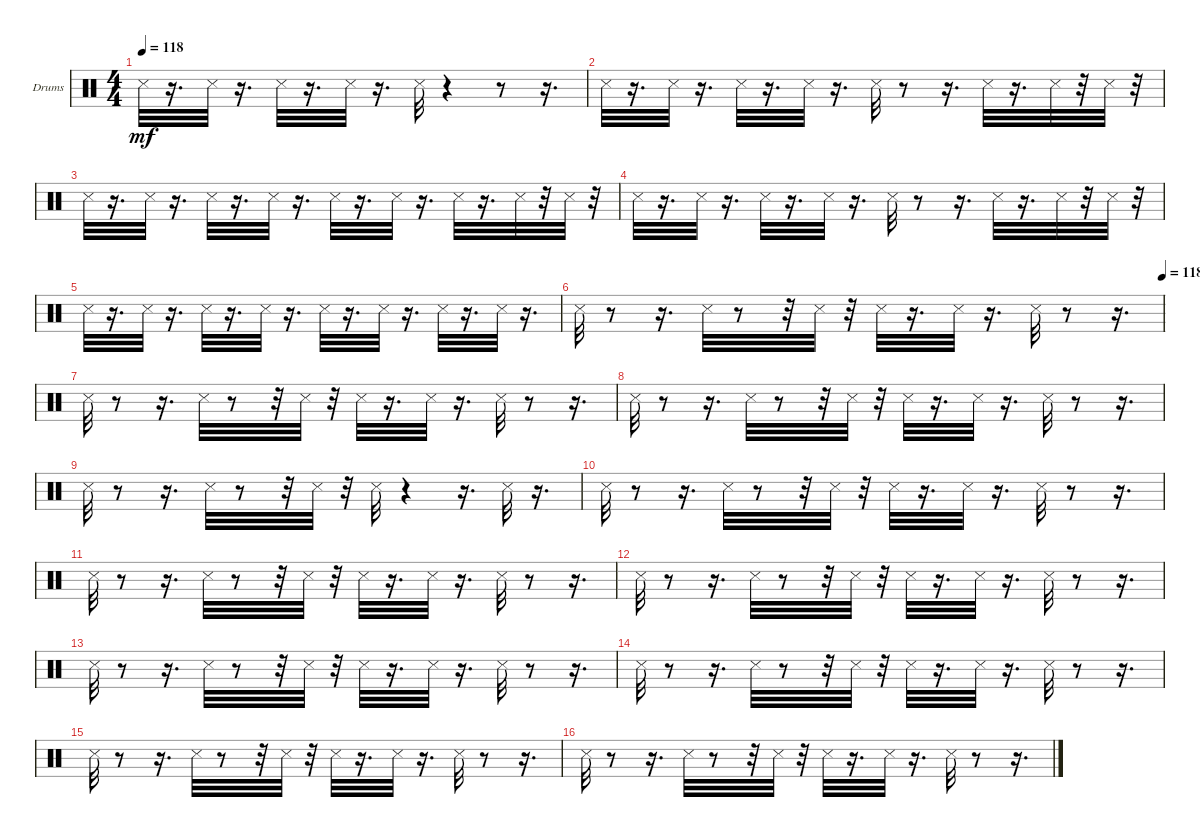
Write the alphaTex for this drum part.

\bracketExtendMode groupsimilarinstruments
\firstSystemTrackNameOrientation horizontal
\otherSystemsTrackNameOrientation horizontal
\track ("Drums" "Drums") {instrument percussion}
\staff {score}
\articulation defaults
\ts (4 4)
\tempo 118
\clef neutral
\ks c "Snare (side stick) 3".32{dy mf}
r.16{d} "Snare (side stick) 3".32 r.16{d} "Snare (side stick) 3".32 r.16{d} "Snare (side stick) 3".32 r.16{d} "Snare (side stick) 3".32 r.4 r.8 r.16{d} |
"Snare (side stick) 3".32 r.16{d} "Snare (side stick) 3".32 r.16{d} "Snare (side stick) 3".32 r.16{d} "Snare (side stick) 3".32 r.16{d} "Snare (side stick) 3".32 r.8 r.16{d} "Snare (side stick) 3".32 r.16{d} "Snare (side stick) 3".32 r.32 "Snare (side stick) 3".32 r.32 |
"Snare (side stick) 3".32 r.16{d} "Snare (side stick) 3".32 r.16{d} "Snare (side stick) 3".32 r.16{d} "Snare (side stick) 3".32 r.16{d} "Snare (side stick) 3".32 r.16{d} "Snare (side stick) 3".32 r.16{d} "Snare (side stick) 3".32 r.16{d} "Snare (side stick) 3".32 r.32 "Snare (side stick) 3".32 r.32 |
"Snare (side stick) 3".32 r.16{d} "Snare (side stick) 3".32 r.16{d} "Snare (side stick) 3".32 r.16{d} "Snare (side stick) 3".32 r.16{d} "Snare (side stick) 3".32 r.8 r.16{d} "Snare (side stick) 3".32 r.16{d} "Snare (side stick) 3".32 r.32 "Snare (side stick) 3".32 r.32 |
"Snare (side stick) 3".32 r.16{d} "Snare (side stick) 3".32 r.16{d} "Snare (side stick) 3".32 r.16{d} "Snare (side stick) 3".32 r.16{d} "Snare (side stick) 3".32 r.16{d} "Snare (side stick) 3".32 r.16{d} "Snare (side stick) 3".32 r.16{d} "Snare (side stick) 3".32 r.16{d} |
\tempo (118 1)
"Snare (side stick) 3".32 r.8 r.16{d} "Snare (side stick) 3".32 r.8 r.32 "Snare (side stick) 3".32 r.32 "Snare (side stick) 3".32 r.16{d} "Snare (side stick) 3".32 r.16{d} "Snare (side stick) 3".32 r.8 r.16{d} |
"Snare (side stick) 3".32 r.8 r.16{d} "Snare (side stick) 3".32 r.8 r.32 "Snare (side stick) 3".32 r.32 "Snare (side stick) 3".32 r.16{d} "Snare (side stick) 3".32 r.16{d} "Snare (side stick) 3".32 r.8 r.16{d} |
"Snare (side stick) 3".32 r.8 r.16{d} "Snare (side stick) 3".32 r.8 r.32 "Snare (side stick) 3".32 r.32 "Snare (side stick) 3".32 r.16{d} "Snare (side stick) 3".32 r.16{d} "Snare (side stick) 3".32 r.8 r.16{d} |
"Snare (side stick) 3".32 r.8 r.16{d} "Snare (side stick) 3".32 r.8 r.32 "Snare (side stick) 3".32 r.32 "Snare (side stick) 3".32 r.4 r.16{d} "Snare (side stick) 3".32 r.16{d} |
"Snare (side stick) 3".32 r.8 r.16{d} "Snare (side stick) 3".32 r.8 r.32 "Snare (side stick) 3".32 r.32 "Snare (side stick) 3".32 r.16{d} "Snare (side stick) 3".32 r.16{d} "Snare (side stick) 3".32 r.8 r.16{d} |
"Snare (side stick) 3".32 r.8 r.16{d} "Snare (side stick) 3".32 r.8 r.32 "Snare (side stick) 3".32 r.32 "Snare (side stick) 3".32 r.16{d} "Snare (side stick) 3".32 r.16{d} "Snare (side stick) 3".32 r.8 r.16{d} |
"Snare (side stick) 3".32 r.8 r.16{d} "Snare (side stick) 3".32 r.8 r.32 "Snare (side stick) 3".32 r.32 "Snare (side stick) 3".32 r.16{d} "Snare (side stick) 3".32 r.16{d} "Snare (side stick) 3".32 r.8 r.16{d} |
"Snare (side stick) 3".32 r.8 r.16{d} "Snare (side stick) 3".32 r.8 r.32 "Snare (side stick) 3".32 r.32 "Snare (side stick) 3".32 r.16{d} "Snare (side stick) 3".32 r.16{d} "Snare (side stick) 3".32 r.8 r.16{d} |
"Snare (side stick) 3".32 r.8 r.16{d} "Snare (side stick) 3".32 r.8 r.32 "Snare (side stick) 3".32 r.32 "Snare (side stick) 3".32 r.16{d} "Snare (side stick) 3".32 r.16{d} "Snare (side stick) 3".32 r.8 r.16{d} |
"Snare (side stick) 3".32 r.8 r.16{d} "Snare (side stick) 3".32 r.8 r.32 "Snare (side stick) 3".32 r.32 "Snare (side stick) 3".32 r.16{d} "Snare (side stick) 3".32 r.16{d} "Snare (side stick) 3".32 r.8 r.16{d} |
"Snare (side stick) 3".32 r.8 r.16{d} "Snare (side stick) 3".32 r.8 r.32 "Snare (side stick) 3".32 r.32 "Snare (side stick) 3".32 r.16{d} "Snare (side stick) 3".32 r.16{d} "Snare (side stick) 3".32 r.8 r.16{d}
